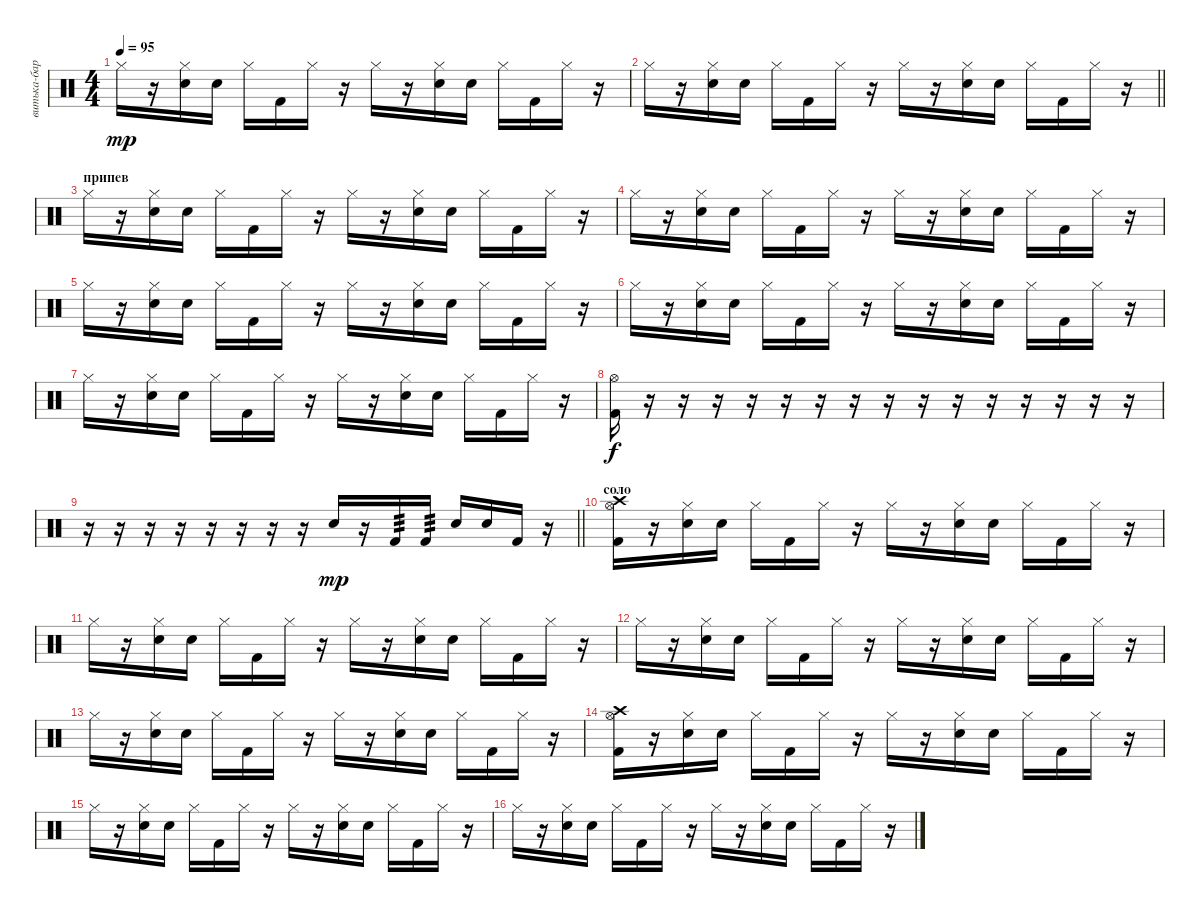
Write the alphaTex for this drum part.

\track ("витька-барабанит" "витька-бар") {instrument percussion}
\staff {score}
\articulation defaults
\ts (4 4)
\tempo 95
\clef neutral
\ks c "Hi-Hat (closed)".16{dy mp}
r.16 ("Snare (hit) 2" "Hi-Hat (closed)").16 "Snare (hit) 2".16 "Hi-Hat (closed)".16 "Kick (hit) 2".16 "Hi-Hat (closed)".16 r.16 "Hi-Hat (closed)".16 r.16 ("Snare (hit) 2" "Hi-Hat (closed)").16 "Snare (hit) 2".16 "Hi-Hat (closed)".16 "Kick (hit) 2".16 "Hi-Hat (closed)".16 r.16 |
\barLineRight lightlight "Hi-Hat (closed)".16
r.16 ("Snare (hit) 2" "Hi-Hat (closed)").16 "Snare (hit) 2".16 "Hi-Hat (closed)".16 "Kick (hit) 2".16 "Hi-Hat (closed)".16 r.16 "Hi-Hat (closed)".16 r.16 ("Snare (hit) 2" "Hi-Hat (closed)").16 "Snare (hit) 2".16 "Hi-Hat (closed)".16 "Kick (hit) 2".16 "Hi-Hat (closed)".16 r.16 |
\section ("" "припев")
"Hi-Hat (closed)".16 r.16 ("Snare (hit) 2" "Hi-Hat (closed)").16 "Snare (hit) 2".16 "Hi-Hat (closed)".16 "Kick (hit) 2".16 "Hi-Hat (closed)".16 r.16 "Hi-Hat (closed)".16 r.16 ("Snare (hit) 2" "Hi-Hat (closed)").16 "Snare (hit) 2".16 "Hi-Hat (closed)".16 "Kick (hit) 2".16 "Hi-Hat (closed)".16 r.16 |
"Hi-Hat (closed)".16 r.16 ("Snare (hit) 2" "Hi-Hat (closed)").16 "Snare (hit) 2".16 "Hi-Hat (closed)".16 "Kick (hit) 2".16 "Hi-Hat (closed)".16 r.16 "Hi-Hat (closed)".16 r.16 ("Snare (hit) 2" "Hi-Hat (closed)").16 "Snare (hit) 2".16 "Hi-Hat (closed)".16 "Kick (hit) 2".16 "Hi-Hat (closed)".16 r.16 |
"Hi-Hat (closed)".16 r.16 ("Snare (hit) 2" "Hi-Hat (closed)").16 "Snare (hit) 2".16 "Hi-Hat (closed)".16 "Kick (hit) 2".16 "Hi-Hat (closed)".16 r.16 "Hi-Hat (closed)".16 r.16 ("Snare (hit) 2" "Hi-Hat (closed)").16 "Snare (hit) 2".16 "Hi-Hat (closed)".16 "Kick (hit) 2".16 "Hi-Hat (closed)".16 r.16 |
"Hi-Hat (closed)".16 r.16 ("Snare (hit) 2" "Hi-Hat (closed)").16 "Snare (hit) 2".16 "Hi-Hat (closed)".16 "Kick (hit) 2".16 "Hi-Hat (closed)".16 r.16 "Hi-Hat (closed)".16 r.16 ("Snare (hit) 2" "Hi-Hat (closed)").16 "Snare (hit) 2".16 "Hi-Hat (closed)".16 "Kick (hit) 2".16 "Hi-Hat (closed)".16 r.16 |
"Hi-Hat (closed)".16 r.16 ("Snare (hit) 2" "Hi-Hat (closed)").16 "Snare (hit) 2".16 "Hi-Hat (closed)".16 "Kick (hit) 2".16 "Hi-Hat (closed)".16 r.16 "Hi-Hat (closed)".16 r.16 ("Snare (hit) 2" "Hi-Hat (closed)").16 "Snare (hit) 2".16 "Hi-Hat (closed)".16 "Kick (hit) 2".16 "Hi-Hat (closed)".16 r.16 |
("Kick (hit) 2" "Hi-Hat (open)").16{dy f} r.16 r.16 r.16 r.16 r.16 r.16 r.16 r.16 r.16 r.16 r.16 r.16 r.16 r.16 r.16 |
\barLineRight lightlight
r.16 r.16 r.16 r.16 r.16 r.16 r.16 r.16 "Snare (hit) 2".16{dy mp} r.16 "Kick (hit) 2".16{tp 3} "Kick (hit) 2".16{tp 3} "Snare (hit) 2".16 "Snare (hit) 2".16 "Kick (hit) 2".16 r.16 |
\section ("" "соло")
("Kick (hit) 2" "Crash high (hit)" "Hi-Hat (open)").16 r.16 ("Snare (hit) 2" "Hi-Hat (closed)").16 "Snare (hit) 2".16 "Hi-Hat (closed)".16 "Kick (hit) 2".16 "Hi-Hat (closed)".16 r.16 "Hi-Hat (closed)".16 r.16 ("Snare (hit) 2" "Hi-Hat (closed)").16 "Snare (hit) 2".16 "Hi-Hat (closed)".16 "Kick (hit) 2".16 "Hi-Hat (closed)".16 r.16 |
"Hi-Hat (closed)".16 r.16 ("Snare (hit) 2" "Hi-Hat (closed)").16 "Snare (hit) 2".16 "Hi-Hat (closed)".16 "Kick (hit) 2".16 "Hi-Hat (closed)".16 r.16 "Hi-Hat (closed)".16 r.16 ("Snare (hit) 2" "Hi-Hat (closed)").16 "Snare (hit) 2".16 "Hi-Hat (closed)".16 "Kick (hit) 2".16 "Hi-Hat (closed)".16 r.16 |
"Hi-Hat (closed)".16 r.16 ("Snare (hit) 2" "Hi-Hat (closed)").16 "Snare (hit) 2".16 "Hi-Hat (closed)".16 "Kick (hit) 2".16 "Hi-Hat (closed)".16 r.16 "Hi-Hat (closed)".16 r.16 ("Snare (hit) 2" "Hi-Hat (closed)").16 "Snare (hit) 2".16 "Hi-Hat (closed)".16 "Kick (hit) 2".16 "Hi-Hat (closed)".16 r.16 |
"Hi-Hat (closed)".16 r.16 ("Snare (hit) 2" "Hi-Hat (closed)").16 "Snare (hit) 2".16 "Hi-Hat (closed)".16 "Kick (hit) 2".16 "Hi-Hat (closed)".16 r.16 "Hi-Hat (closed)".16 r.16 ("Snare (hit) 2" "Hi-Hat (closed)").16 "Snare (hit) 2".16 "Hi-Hat (closed)".16 "Kick (hit) 2".16 "Hi-Hat (closed)".16 r.16 |
("Kick (hit) 2" "Crash high (hit)" "Hi-Hat (open)").16 r.16 ("Snare (hit) 2" "Hi-Hat (closed)").16 "Snare (hit) 2".16 "Hi-Hat (closed)".16 "Kick (hit) 2".16 "Hi-Hat (closed)".16 r.16 "Hi-Hat (closed)".16 r.16 ("Snare (hit) 2" "Hi-Hat (closed)").16 "Snare (hit) 2".16 "Hi-Hat (closed)".16 "Kick (hit) 2".16 "Hi-Hat (closed)".16 r.16 |
"Hi-Hat (closed)".16 r.16 ("Snare (hit) 2" "Hi-Hat (closed)").16 "Snare (hit) 2".16 "Hi-Hat (closed)".16 "Kick (hit) 2".16 "Hi-Hat (closed)".16 r.16 "Hi-Hat (closed)".16 r.16 ("Snare (hit) 2" "Hi-Hat (closed)").16 "Snare (hit) 2".16 "Hi-Hat (closed)".16 "Kick (hit) 2".16 "Hi-Hat (closed)".16 r.16 |
"Hi-Hat (closed)".16 r.16 ("Snare (hit) 2" "Hi-Hat (closed)").16 "Snare (hit) 2".16 "Hi-Hat (closed)".16 "Kick (hit) 2".16 "Hi-Hat (closed)".16 r.16 "Hi-Hat (closed)".16 r.16 ("Snare (hit) 2" "Hi-Hat (closed)").16 "Snare (hit) 2".16 "Hi-Hat (closed)".16 "Kick (hit) 2".16 "Hi-Hat (closed)".16 r.16
